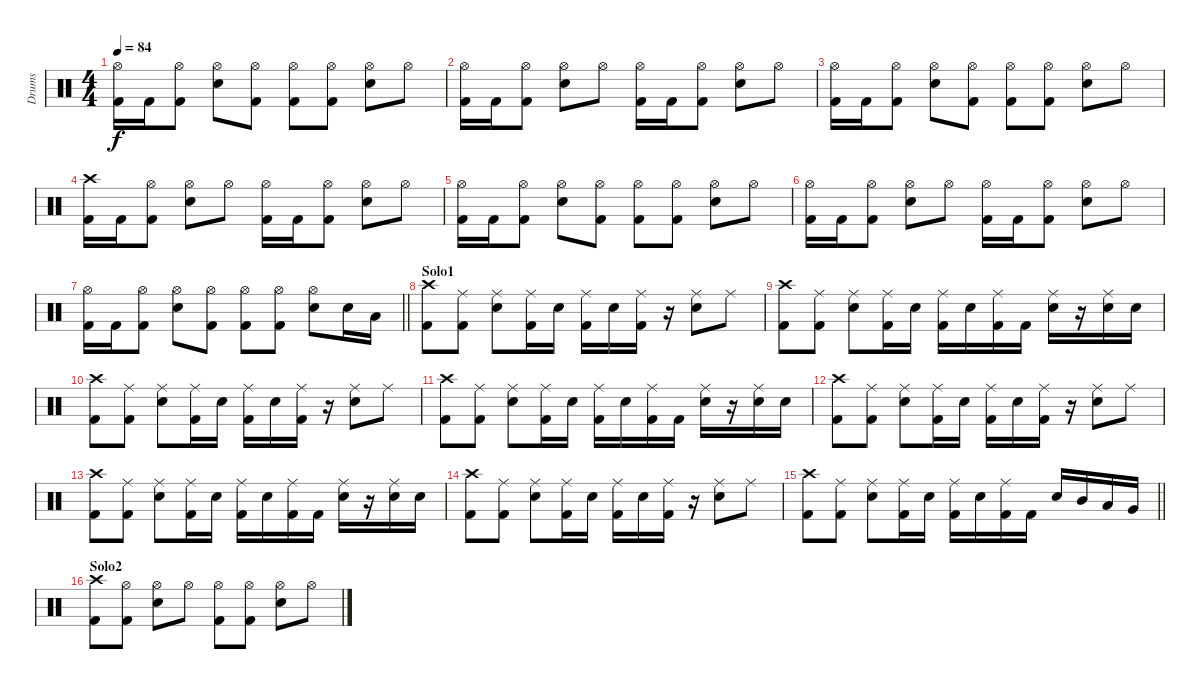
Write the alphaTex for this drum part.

\track ("Drums" "Drums") {instrument percussion}
\staff {score}
\articulation defaults
\ts (4 4)
\tempo 84
\clef neutral
\ks c
("Hi-Hat (open)" "Kick (hit) 2").16{dy f} "Kick (hit) 2".16 ("Hi-Hat (open)" "Kick (hit) 2").8 ("Hi-Hat (open)" "Snare (hit) 2").8 ("Hi-Hat (open)" "Kick (hit) 2").8 ("Hi-Hat (open)" "Kick (hit) 2").8 ("Hi-Hat (open)" "Kick (hit) 2").8 ("Hi-Hat (open)" "Snare (hit) 2").8 "Hi-Hat (open)".8 |
("Hi-Hat (open)" "Kick (hit) 2").16 "Kick (hit) 2".16 ("Hi-Hat (open)" "Kick (hit) 2").8 ("Hi-Hat (open)" "Snare (hit) 2").8 "Hi-Hat (open)".8 ("Hi-Hat (open)" "Kick (hit) 2").16 "Kick (hit) 2".16 ("Hi-Hat (open)" "Kick (hit) 2").8 ("Hi-Hat (open)" "Snare (hit) 2").8 "Hi-Hat (open)".8 |
("Hi-Hat (open)" "Kick (hit) 2").16 "Kick (hit) 2".16 ("Hi-Hat (open)" "Kick (hit) 2").8 ("Hi-Hat (open)" "Snare (hit) 2").8 ("Hi-Hat (open)" "Kick (hit) 2").8 ("Hi-Hat (open)" "Kick (hit) 2").8 ("Hi-Hat (open)" "Kick (hit) 2").8 ("Hi-Hat (open)" "Snare (hit) 2").8 "Hi-Hat (open)".8 |
("Crash high (hit)" "Kick (hit) 2").16 "Kick (hit) 2".16 ("Hi-Hat (open)" "Kick (hit) 2").8 ("Hi-Hat (open)" "Snare (hit) 2").8 "Hi-Hat (open)".8 ("Hi-Hat (open)" "Kick (hit) 2").16 "Kick (hit) 2".16 ("Hi-Hat (open)" "Kick (hit) 2").8 ("Hi-Hat (open)" "Snare (hit) 2").8 "Hi-Hat (open)".8 |
("Hi-Hat (open)" "Kick (hit) 2").16 "Kick (hit) 2".16 ("Hi-Hat (open)" "Kick (hit) 2").8 ("Hi-Hat (open)" "Snare (hit) 2").8 ("Hi-Hat (open)" "Kick (hit) 2").8 ("Hi-Hat (open)" "Kick (hit) 2").8 ("Hi-Hat (open)" "Kick (hit) 2").8 ("Hi-Hat (open)" "Snare (hit) 2").8 "Hi-Hat (open)".8 |
("Hi-Hat (open)" "Kick (hit) 2").16 "Kick (hit) 2".16 ("Hi-Hat (open)" "Kick (hit) 2").8 ("Hi-Hat (open)" "Snare (hit) 2").8 "Hi-Hat (open)".8 ("Hi-Hat (open)" "Kick (hit) 2").16 "Kick (hit) 2".16 ("Hi-Hat (open)" "Kick (hit) 2").8 ("Hi-Hat (open)" "Snare (hit) 2").8 "Hi-Hat (open)".8 |
\barLineRight lightlight
("Hi-Hat (open)" "Kick (hit) 2").16 "Kick (hit) 2".16 ("Hi-Hat (open)" "Kick (hit) 2").8 ("Hi-Hat (open)" "Snare (hit) 2").8 ("Hi-Hat (open)" "Kick (hit) 2").8 ("Hi-Hat (open)" "Kick (hit) 2").8 ("Hi-Hat (open)" "Kick (hit) 2").8 ("Hi-Hat (open)" "Snare (hit) 2").8 "Snare (hit) 2".16 "Low Tom (hit)".16 |
\section ("" "Solo1")
("Crash high (hit)" "Kick (hit) 2").8 ("Ride (middle)" "Kick (hit) 2").8 ("Ride (middle)" "Snare (hit) 2").8 ("Ride (middle)" "Kick (hit) 2").16 "Snare (hit) 2".16 ("Ride (middle)" "Kick (hit) 2").16 "Snare (hit) 2".16 ("Ride (middle)" "Kick (hit) 2").16 r.16 ("Ride (middle)" "Snare (hit) 2").8 "Ride (middle)".8 |
("Crash high (hit)" "Kick (hit) 2").8 ("Ride (middle)" "Kick (hit) 2").8 ("Ride (middle)" "Snare (hit) 2").8 ("Ride (middle)" "Kick (hit) 2").16 "Snare (hit) 2".16 ("Ride (middle)" "Kick (hit) 2").16 "Snare (hit) 2".16 ("Ride (middle)" "Kick (hit) 2").16 "Kick (hit) 2".16 ("Ride (middle)" "Snare (hit) 2").16 r.16 ("Ride (middle)" "Snare (hit) 2").16 "Snare (hit) 2".16 |
("Crash high (hit)" "Kick (hit) 2").8 ("Ride (middle)" "Kick (hit) 2").8 ("Ride (middle)" "Snare (hit) 2").8 ("Ride (middle)" "Kick (hit) 2").16 "Snare (hit) 2".16 ("Ride (middle)" "Kick (hit) 2").16 "Snare (hit) 2".16 ("Ride (middle)" "Kick (hit) 2").16 r.16 ("Ride (middle)" "Snare (hit) 2").8 "Ride (middle)".8 |
("Crash high (hit)" "Kick (hit) 2").8 ("Ride (middle)" "Kick (hit) 2").8 ("Ride (middle)" "Snare (hit) 2").8 ("Ride (middle)" "Kick (hit) 2").16 "Snare (hit) 2".16 ("Ride (middle)" "Kick (hit) 2").16 "Snare (hit) 2".16 ("Ride (middle)" "Kick (hit) 2").16 "Kick (hit) 2".16 ("Ride (middle)" "Snare (hit) 2").16 r.16 ("Ride (middle)" "Snare (hit) 2").16 "Snare (hit) 2".16 |
("Crash high (hit)" "Kick (hit) 2").8 ("Ride (middle)" "Kick (hit) 2").8 ("Ride (middle)" "Snare (hit) 2").8 ("Ride (middle)" "Kick (hit) 2").16 "Snare (hit) 2".16 ("Ride (middle)" "Kick (hit) 2").16 "Snare (hit) 2".16 ("Ride (middle)" "Kick (hit) 2").16 r.16 ("Ride (middle)" "Snare (hit) 2").8 "Ride (middle)".8 |
("Crash high (hit)" "Kick (hit) 2").8 ("Ride (middle)" "Kick (hit) 2").8 ("Ride (middle)" "Snare (hit) 2").8 ("Ride (middle)" "Kick (hit) 2").16 "Snare (hit) 2".16 ("Ride (middle)" "Kick (hit) 2").16 "Snare (hit) 2".16 ("Ride (middle)" "Kick (hit) 2").16 "Kick (hit) 2".16 ("Ride (middle)" "Snare (hit) 2").16 r.16 ("Ride (middle)" "Snare (hit) 2").16 "Snare (hit) 2".16 |
("Crash high (hit)" "Kick (hit) 2").8 ("Ride (middle)" "Kick (hit) 2").8 ("Ride (middle)" "Snare (hit) 2").8 ("Ride (middle)" "Kick (hit) 2").16 "Snare (hit) 2".16 ("Ride (middle)" "Kick (hit) 2").16 "Snare (hit) 2".16 ("Ride (middle)" "Kick (hit) 2").16 r.16 ("Ride (middle)" "Snare (hit) 2").8 "Ride (middle)".8 |
\barLineRight lightlight
("Crash high (hit)" "Kick (hit) 2").8 ("Ride (middle)" "Kick (hit) 2").8 ("Ride (middle)" "Snare (hit) 2").8 ("Ride (middle)" "Kick (hit) 2").16 "Snare (hit) 2".16 ("Ride (middle)" "Kick (hit) 2").16 "Snare (hit) 2".16 ("Ride (middle)" "Kick (hit) 2").16 "Kick (hit) 2".16 "Snare (hit) 2".16 "Mid Tom (hit)".16 "Low Tom (hit)".16 "Very Low Tom (hit)".16 |
\section ("" "Solo2")
("Crash high (hit)" "Kick (hit) 2").8 ("Hi-Hat (open)" "Kick (hit) 2").8 ("Hi-Hat (open)" "Snare (hit) 2").8 "Hi-Hat (open)".8 ("Hi-Hat (open)" "Kick (hit) 2").8 ("Hi-Hat (open)" "Kick (hit) 2").8 ("Hi-Hat (open)" "Snare (hit) 2").8 "Hi-Hat (open)".8
